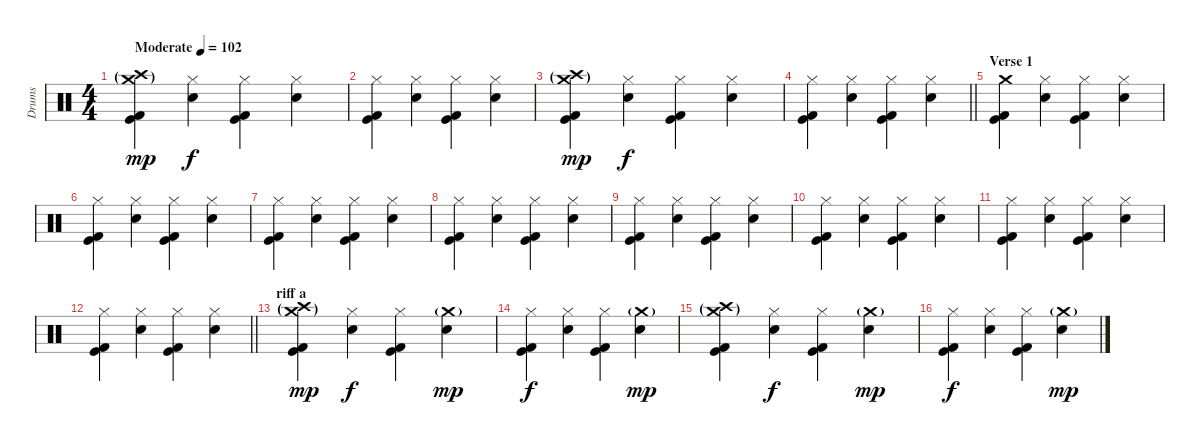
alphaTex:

\track ("Drums" "Drums") {instrument percussion}
\staff {score}
\articulation defaults
\ts (4 4)
\tempo (102 "Moderate")
\clef neutral
\ks c
("Crash high (hit)"{g} "Crash medium (hit)"{g} "Kick (hit)" "Kick (hit) 2").4{dy mp} ("Hi-Hat (closed)" "Electric Snare (hit)").4{dy f} ("Hi-Hat (closed)" "Kick (hit)" "Kick (hit) 2").4 ("Hi-Hat (closed)" "Electric Snare (hit)").4 |
("Hi-Hat (closed)" "Kick (hit)" "Kick (hit) 2").4 ("Hi-Hat (closed)" "Electric Snare (hit)").4 ("Hi-Hat (closed)" "Kick (hit)" "Kick (hit) 2").4 ("Hi-Hat (closed)" "Electric Snare (hit)").4 |
("Crash high (hit)"{g} "Crash medium (hit)"{g} "Kick (hit)" "Kick (hit) 2").4{dy mp} ("Hi-Hat (closed)" "Electric Snare (hit)").4{dy f} ("Hi-Hat (closed)" "Kick (hit)" "Kick (hit) 2").4 ("Hi-Hat (closed)" "Electric Snare (hit)").4 |
\barLineRight lightlight
("Hi-Hat (closed)" "Kick (hit)" "Kick (hit) 2").4 ("Hi-Hat (closed)" "Electric Snare (hit)").4 ("Hi-Hat (closed)" "Kick (hit)" "Kick (hit) 2").4 ("Hi-Hat (closed)" "Electric Snare (hit)").4 |
\section ("" "Verse 1")
("Crash medium (hit)" "Kick (hit)" "Kick (hit) 2").4 ("Hi-Hat (closed)" "Electric Snare (hit)").4 ("Hi-Hat (closed)" "Kick (hit)" "Kick (hit) 2").4 ("Hi-Hat (closed)" "Electric Snare (hit)").4 |
("Hi-Hat (closed)" "Kick (hit)" "Kick (hit) 2").4 ("Hi-Hat (closed)" "Electric Snare (hit)").4 ("Hi-Hat (closed)" "Kick (hit)" "Kick (hit) 2").4 ("Hi-Hat (closed)" "Electric Snare (hit)").4 |
("Hi-Hat (closed)" "Kick (hit)" "Kick (hit) 2").4 ("Hi-Hat (closed)" "Electric Snare (hit)").4 ("Hi-Hat (closed)" "Kick (hit)" "Kick (hit) 2").4 ("Hi-Hat (closed)" "Electric Snare (hit)").4 |
("Hi-Hat (closed)" "Kick (hit)" "Kick (hit) 2").4 ("Hi-Hat (closed)" "Electric Snare (hit)").4 ("Hi-Hat (closed)" "Kick (hit)" "Kick (hit) 2").4 ("Hi-Hat (closed)" "Electric Snare (hit)").4 |
("Hi-Hat (closed)" "Kick (hit)" "Kick (hit) 2").4 ("Hi-Hat (closed)" "Electric Snare (hit)").4 ("Hi-Hat (closed)" "Kick (hit)" "Kick (hit) 2").4 ("Hi-Hat (closed)" "Electric Snare (hit)").4 |
("Hi-Hat (closed)" "Kick (hit)" "Kick (hit) 2").4 ("Hi-Hat (closed)" "Electric Snare (hit)").4 ("Hi-Hat (closed)" "Kick (hit)" "Kick (hit) 2").4 ("Hi-Hat (closed)" "Electric Snare (hit)").4 |
("Hi-Hat (closed)" "Kick (hit)" "Kick (hit) 2").4 ("Hi-Hat (closed)" "Electric Snare (hit)").4 ("Hi-Hat (closed)" "Kick (hit)" "Kick (hit) 2").4 ("Hi-Hat (closed)" "Electric Snare (hit)").4 |
\barLineRight lightlight
("Hi-Hat (closed)" "Kick (hit)" "Kick (hit) 2").4 ("Hi-Hat (closed)" "Electric Snare (hit)").4 ("Hi-Hat (closed)" "Kick (hit)" "Kick (hit) 2").4 ("Hi-Hat (closed)" "Electric Snare (hit)").4 |
\section ("" "riff a")
("Crash high (hit)"{g} "Crash medium (hit)"{g} "Kick (hit)" "Kick (hit) 2").4{dy mp} ("Hi-Hat (closed)" "Electric Snare (hit)").4{dy f} ("Hi-Hat (closed)" "Kick (hit)" "Kick (hit) 2").4 ("Crash medium (hit)"{g} "Electric Snare (hit)").4{dy mp} |
("Hi-Hat (closed)" "Kick (hit)" "Kick (hit) 2").4{dy f} ("Hi-Hat (closed)" "Electric Snare (hit)").4 ("Hi-Hat (closed)" "Kick (hit)" "Kick (hit) 2").4 ("Crash medium (hit)"{g} "Electric Snare (hit)").4{dy mp} |
("Crash high (hit)"{g} "Crash medium (hit)"{g} "Kick (hit)" "Kick (hit) 2").4 ("Hi-Hat (closed)" "Electric Snare (hit)").4{dy f} ("Hi-Hat (closed)" "Kick (hit)" "Kick (hit) 2").4 ("Crash medium (hit)"{g} "Electric Snare (hit)").4{dy mp} |
("Hi-Hat (closed)" "Kick (hit)" "Kick (hit) 2").4{dy f} ("Hi-Hat (closed)" "Electric Snare (hit)").4 ("Hi-Hat (closed)" "Kick (hit)" "Kick (hit) 2").4 ("Crash medium (hit)"{g} "Electric Snare (hit)").4{dy mp}
